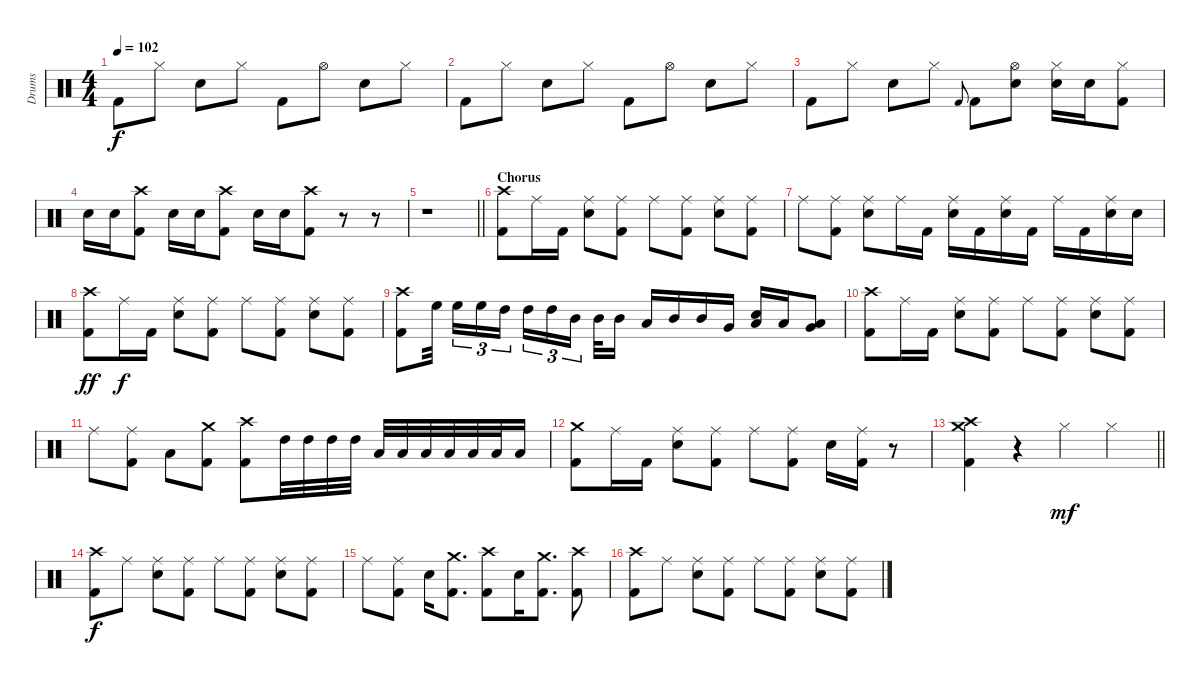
\track ("Drums" "Drums") {instrument percussion}
\staff {score}
\articulation defaults
\ts (4 4)
\tempo 102
\clef neutral
\ks c "Kick (hit) 2".8{dy f} "Hi-Hat (closed)".8 "Snare (hit) 2".8 "Hi-Hat (closed)".8 "Kick (hit) 2".8 "Hi-Hat (open)".8 "Snare (hit) 2".8 "Hi-Hat (closed)".8
|
"Kick (hit) 2".8 "Hi-Hat (closed)".8 "Snare (hit) 2".8 "Hi-Hat (closed)".8 "Kick (hit) 2".8 "Hi-Hat (open)".8 "Snare (hit) 2".8 "Hi-Hat (closed)".8 |
"Kick (hit) 2".8 "Hi-Hat (closed)".8 "Snare (hit) 2".8 "Hi-Hat (closed)".8 "Kick (hit) 2".8{gr onbeat} "Kick (hit) 2".8 ("Hi-Hat (open)" "Snare (hit) 2").8 ("Hi-Hat (closed)" "Snare (hit) 2").16 "Snare (hit) 2".16 ("Hi-Hat (closed)" "Kick (hit) 2").8 |
"Snare (hit) 2".16 "Snare (hit) 2".16 ("Crash high (hit)" "Kick (hit) 2").8 "Snare (hit) 2".16 "Snare (hit) 2".16 ("Crash high (hit)" "Kick (hit) 2").8 "Snare (hit) 2".16 "Snare (hit) 2".16 ("Crash high (hit)" "Kick (hit) 2").8 r.8 r.8 |
\barLineRight lightlight
r.1 |
\section ("" "Chorus")
("Crash high (hit)" "Kick (hit) 2").8 "Ride (middle)".16 "Kick (hit) 2".16 ("Ride (middle)" "Snare (hit) 2").8 ("Ride (middle)" "Kick (hit) 2").8 "Ride (middle)".8 ("Ride (middle)" "Kick (hit) 2").8 ("Ride (middle)" "Snare (hit) 2").8 ("Ride (middle)" "Kick (hit) 2").8 |
"Ride (middle)".8 ("Ride (middle)" "Kick (hit) 2").8 ("Ride (middle)" "Snare (hit) 2").8 "Ride (middle)".16 "Kick (hit) 2".16 ("Ride (middle)" "Snare (hit) 2").16 "Kick (hit) 2".16 ("Ride (middle)" "Snare (hit) 2").16 "Kick (hit) 2".16 "Ride (middle)".16 "Kick (hit) 2".16 ("Ride (middle)" "Snare (hit) 2").16 "Snare (hit) 2".16 |
("Crash high (hit)" "Kick (hit) 2").8{dy ff} "Ride (middle)".16{dy f} "Kick (hit) 2".16 ("Ride (middle)" "Snare (hit) 2").8 ("Ride (middle)" "Kick (hit) 2").8 "Ride (middle)".8 ("Ride (middle)" "Kick (hit) 2").8 ("Ride (middle)" "Snare (hit) 2").8 ("Ride (middle)" "Kick (hit) 2").8 |
("Crash high (hit)" "Kick (hit) 2").8 "High Floor Tom (hit)".32{beam splitsecondary} "High Floor Tom (hit)".16{tu (3 2)} "High Floor Tom (hit)".16{tu (3 2)} "High Tom (hit)".16{tu (3 2)} "High Tom (hit)".16{tu (3 2)} "High Tom (hit)".16{tu (3 2)} "Mid Tom (hit)".16{tu (3 2) beam splitsecondary} "Mid Tom (hit)".32 "Mid Tom (hit)".16 "Low Tom (hit)".16 "Mid Tom (hit)".16 "Mid Tom (hit)".16 "Very Low Tom (hit)".16 ("Snare (hit) 2" "Low Tom (hit)").16 "Low Tom (hit)".16 ("Very Low Tom (hit)" "Low Floor Tom (hit)").8 |
("Crash high (hit)" "Kick (hit) 2").8 "Ride (middle)".16 "Kick (hit) 2".16 ("Ride (middle)" "Snare (hit) 2").8 ("Ride (middle)" "Kick (hit) 2").8 "Ride (middle)".8 ("Ride (middle)" "Kick (hit) 2").8 ("Ride (middle)" "Snare (hit) 2").8 ("Ride (middle)" "Kick (hit) 2").8 |
"Ride (middle)".8 ("Ride (middle)" "Kick (hit) 2").8 "Low Tom (hit)".8 ("Crash medium (hit)" "Kick (hit) 2").8 ("Crash high (hit)" "Kick (hit) 2").8 "High Tom (hit)".32 "High Tom (hit)".32 "High Tom (hit)".32 "High Tom (hit)".32 "Low Tom (hit)".32 "Low Tom (hit)".32 "Low Tom (hit)".32 "Low Tom (hit)".32 "Low Floor Tom (hit)".32 "Low Floor Tom (hit)".32 "Low Floor Tom (hit)".16 |
("Crash medium (hit)" "Kick (hit) 2").8 "Ride (middle)".16 "Kick (hit) 2".16 ("Ride (middle)" "Snare (hit) 2").8 ("Ride (middle)" "Kick (hit) 2").8 "Ride (middle)".8 ("Ride (middle)" "Kick (hit) 2").8 "Snare (hit) 2".16 ("Ride (middle)" "Kick (hit) 2").16 r.8 |
\barLineRight lightlight
("Crash medium (hit)" "Crash high (hit)" "Kick (hit) 2").4 r.4 "Hi-Hat (closed)".4{dy mf} "Hi-Hat (closed)".4 |
("Crash high (hit)" "Kick (hit) 2").8{dy f} "Ride (middle)".8 ("Ride (middle)" "Snare (hit) 2").8 ("Ride (middle)" "Kick (hit) 2").8 "Ride (middle)".8 ("Ride (middle)" "Kick (hit) 2").8 ("Ride (middle)" "Snare (hit) 2").8 ("Ride (middle)" "Kick (hit) 2").8 |
"Ride (middle)".8 ("Ride (middle)" "Kick (hit) 2").8 "Snare (hit) 2".16 ("Crash medium (hit)" "Kick (hit) 2").8{d} ("Crash high (hit)" "Kick (hit) 2").8 "Snare (hit) 2".16 ("Crash medium (hit)" "Kick (hit) 2").8{d} ("Crash high (hit)" "Kick (hit) 2").8 |
("Crash high (hit)" "Kick (hit) 2").8 "Ride (middle)".8 ("Ride (middle)" "Snare (hit) 2").8 ("Ride (middle)" "Kick (hit) 2").8 "Ride (middle)".8 ("Ride (middle)" "Kick (hit) 2").8 ("Ride (middle)" "Snare (hit) 2").8 ("Ride (middle)" "Kick (hit) 2").8
